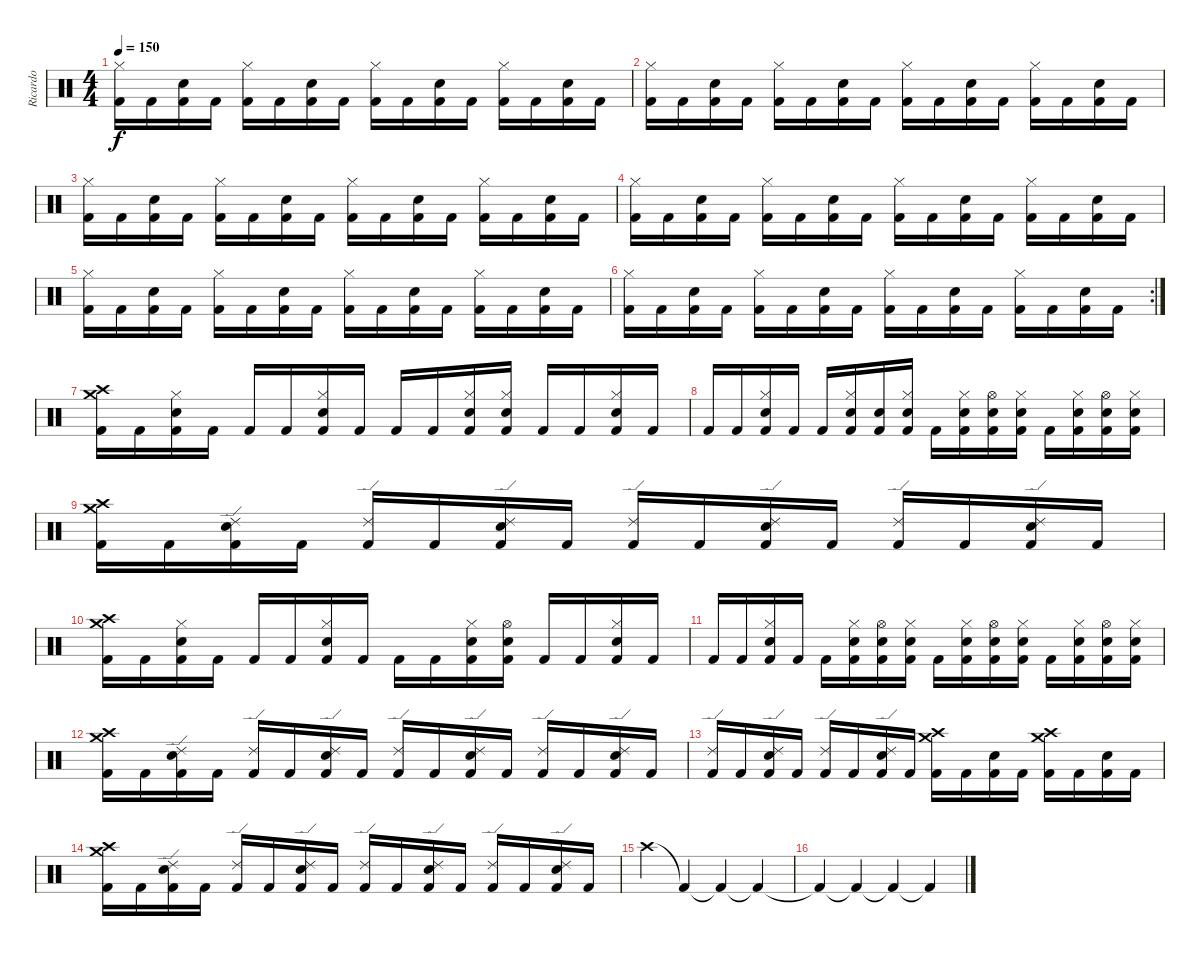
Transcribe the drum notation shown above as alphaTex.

\track ("Ricardo" "Ricardo") {instrument percussion}
\staff {score}
\articulation defaults
\ts (4 4)
\tempo 150
\clef neutral
\ks c
("Kick (hit) 2" "Hi-Hat (closed)").16{dy f} "Kick (hit) 2".16 ("Kick (hit) 2" "Snare (hit) 2").16 "Kick (hit) 2".16 ("Kick (hit) 2" "Hi-Hat (closed)").16 "Kick (hit) 2".16 ("Kick (hit) 2" "Snare (hit) 2").16 "Kick (hit) 2".16 ("Kick (hit) 2" "Hi-Hat (closed)").16 "Kick (hit) 2".16 ("Kick (hit) 2" "Snare (hit) 2").16 "Kick (hit) 2".16 ("Kick (hit) 2" "Hi-Hat (closed)").16 "Kick (hit) 2".16 ("Kick (hit) 2" "Snare (hit) 2").16 "Kick (hit) 2".16 |
("Kick (hit) 2" "Hi-Hat (closed)").16 "Kick (hit) 2".16 ("Kick (hit) 2" "Snare (hit) 2").16 "Kick (hit) 2".16 ("Kick (hit) 2" "Hi-Hat (closed)").16 "Kick (hit) 2".16 ("Kick (hit) 2" "Snare (hit) 2").16 "Kick (hit) 2".16 ("Kick (hit) 2" "Hi-Hat (closed)").16 "Kick (hit) 2".16 ("Kick (hit) 2" "Snare (hit) 2").16 "Kick (hit) 2".16 ("Kick (hit) 2" "Hi-Hat (closed)").16 "Kick (hit) 2".16 ("Kick (hit) 2" "Snare (hit) 2").16 "Kick (hit) 2".16 |
("Kick (hit) 2" "Hi-Hat (closed)").16 "Kick (hit) 2".16 ("Kick (hit) 2" "Snare (hit) 2").16 "Kick (hit) 2".16 ("Kick (hit) 2" "Hi-Hat (closed)").16 "Kick (hit) 2".16 ("Kick (hit) 2" "Snare (hit) 2").16 "Kick (hit) 2".16 ("Kick (hit) 2" "Hi-Hat (closed)").16 "Kick (hit) 2".16 ("Kick (hit) 2" "Snare (hit) 2").16 "Kick (hit) 2".16 ("Kick (hit) 2" "Hi-Hat (closed)").16 "Kick (hit) 2".16 ("Kick (hit) 2" "Snare (hit) 2").16 "Kick (hit) 2".16 |
("Kick (hit) 2" "Hi-Hat (closed)").16 "Kick (hit) 2".16 ("Kick (hit) 2" "Snare (hit) 2").16 "Kick (hit) 2".16 ("Kick (hit) 2" "Hi-Hat (closed)").16 "Kick (hit) 2".16 ("Kick (hit) 2" "Snare (hit) 2").16 "Kick (hit) 2".16 ("Kick (hit) 2" "Hi-Hat (closed)").16 "Kick (hit) 2".16 ("Kick (hit) 2" "Snare (hit) 2").16 "Kick (hit) 2".16 ("Kick (hit) 2" "Hi-Hat (closed)").16 "Kick (hit) 2".16 ("Kick (hit) 2" "Snare (hit) 2").16 "Kick (hit) 2".16 |
("Kick (hit) 2" "Hi-Hat (closed)").16 "Kick (hit) 2".16 ("Kick (hit) 2" "Snare (hit) 2").16 "Kick (hit) 2".16 ("Kick (hit) 2" "Hi-Hat (closed)").16 "Kick (hit) 2".16 ("Kick (hit) 2" "Snare (hit) 2").16 "Kick (hit) 2".16 ("Kick (hit) 2" "Hi-Hat (closed)").16 "Kick (hit) 2".16 ("Kick (hit) 2" "Snare (hit) 2").16 "Kick (hit) 2".16 ("Kick (hit) 2" "Hi-Hat (closed)").16 "Kick (hit) 2".16 ("Kick (hit) 2" "Snare (hit) 2").16 "Kick (hit) 2".16 |
\rc 2
("Kick (hit) 2" "Hi-Hat (closed)").16 "Kick (hit) 2".16 ("Kick (hit) 2" "Snare (hit) 2").16 "Kick (hit) 2".16 ("Kick (hit) 2" "Hi-Hat (closed)").16 "Kick (hit) 2".16 ("Kick (hit) 2" "Snare (hit) 2").16 "Kick (hit) 2".16 ("Kick (hit) 2" "Hi-Hat (closed)").16 "Kick (hit) 2".16 ("Kick (hit) 2" "Snare (hit) 2").16 "Kick (hit) 2".16 ("Kick (hit) 2" "Hi-Hat (closed)").16 "Kick (hit) 2".16 ("Kick (hit) 2" "Snare (hit) 2").16 "Kick (hit) 2".16 |
("Crash medium (hit)" "Crash high (hit)" "Kick (hit) 2").16 "Kick (hit) 2".16 ("Hi-Hat (closed)" "Snare (hit) 2" "Kick (hit) 2").16 "Kick (hit) 2".16 "Kick (hit) 2".16 "Kick (hit) 2".16 ("Hi-Hat (closed)" "Snare (hit) 2" "Kick (hit) 2").16 "Kick (hit) 2".16 "Kick (hit) 2".16 "Kick (hit) 2".16 ("Hi-Hat (closed)" "Snare (hit) 2" "Kick (hit) 2").16 ("Hi-Hat (closed)" "Snare (hit) 2" "Kick (hit) 2").16 "Kick (hit) 2".16 "Kick (hit) 2".16 ("Hi-Hat (closed)" "Snare (hit) 2" "Kick (hit) 2").16 "Kick (hit) 2".16 |
"Kick (hit) 2".16 "Kick (hit) 2".16 ("Hi-Hat (closed)" "Snare (hit) 2" "Kick (hit) 2").16 "Kick (hit) 2".16 "Kick (hit) 2".16 ("Hi-Hat (closed)" "Snare (hit) 2" "Kick (hit) 2").16 ("Snare (hit) 2" "Kick (hit) 2").16 ("Hi-Hat (closed)" "Snare (hit) 2" "Kick (hit) 2").16 "Kick (hit) 2".16 ("Snare (hit) 2" "Hi-Hat (closed)" "Kick (hit) 2").16 ("Hi-Hat (open)" "Snare (hit) 2" "Kick (hit) 2").16 ("Hi-Hat (closed)" "Snare (hit) 2" "Kick (hit) 2").16 "Kick (hit) 2".16 ("Hi-Hat (closed)" "Snare (hit) 2" "Kick (hit) 2").16 ("Hi-Hat (open)" "Snare (hit) 2" "Kick (hit) 2").16 ("Hi-Hat (closed)" "Snare (hit) 2" "Kick (hit) 2").16 |
("Crash high (hit)" "Crash medium (hit)" "Kick (hit) 2").16 "Kick (hit) 2".16 ("Ride (edge) 2" "Snare (hit) 2" "Kick (hit) 2").16 "Kick (hit) 2".16 ("Ride (edge) 2" "Kick (hit) 2").16 "Kick (hit) 2".16 ("Ride (edge) 2" "Snare (hit) 2" "Kick (hit) 2").16 "Kick (hit) 2".16 ("Ride (edge) 2" "Kick (hit) 2").16 "Kick (hit) 2".16 ("Ride (edge) 2" "Snare (hit) 2" "Kick (hit) 2").16 "Kick (hit) 2".16 ("Ride (edge) 2" "Kick (hit) 2").16 "Kick (hit) 2".16 ("Ride (edge) 2" "Snare (hit) 2" "Kick (hit) 2").16 "Kick (hit) 2".16 |
("Crash medium (hit)" "Crash high (hit)" "Kick (hit) 2").16 "Kick (hit) 2".16 ("Hi-Hat (closed)" "Snare (hit) 2" "Kick (hit) 2").16 "Kick (hit) 2".16 "Kick (hit) 2".16 "Kick (hit) 2".16 ("Hi-Hat (closed)" "Snare (hit) 2" "Kick (hit) 2").16 "Kick (hit) 2".16 "Kick (hit) 2".16 "Kick (hit) 2".16 ("Hi-Hat (closed)" "Snare (hit) 2" "Kick (hit) 2").16 ("Hi-Hat (open)" "Snare (hit) 2" "Kick (hit) 2").16 "Kick (hit) 2".16 "Kick (hit) 2".16 ("Hi-Hat (closed)" "Snare (hit) 2" "Kick (hit) 2").16 "Kick (hit) 2".16 |
"Kick (hit) 2".16 "Kick (hit) 2".16 ("Hi-Hat (closed)" "Snare (hit) 2" "Kick (hit) 2").16 "Kick (hit) 2".16 "Kick (hit) 2".16 ("Hi-Hat (closed)" "Snare (hit) 2" "Kick (hit) 2").16 ("Hi-Hat (open)" "Snare (hit) 2" "Kick (hit) 2").16 ("Hi-Hat (closed)" "Snare (hit) 2" "Kick (hit) 2").16 "Kick (hit) 2".16 ("Snare (hit) 2" "Hi-Hat (closed)" "Kick (hit) 2").16 ("Hi-Hat (open)" "Snare (hit) 2" "Kick (hit) 2").16 ("Hi-Hat (closed)" "Snare (hit) 2" "Kick (hit) 2").16 "Kick (hit) 2".16 ("Hi-Hat (closed)" "Snare (hit) 2" "Kick (hit) 2").16 ("Hi-Hat (open)" "Snare (hit) 2" "Kick (hit) 2").16 ("Hi-Hat (closed)" "Snare (hit) 2" "Kick (hit) 2").16 |
("Crash high (hit)" "Crash medium (hit)" "Kick (hit) 2").16 "Kick (hit) 2".16 ("Ride (edge) 2" "Snare (hit) 2" "Kick (hit) 2").16 "Kick (hit) 2".16 ("Ride (edge) 2" "Kick (hit) 2").16 "Kick (hit) 2".16 ("Ride (edge) 2" "Snare (hit) 2" "Kick (hit) 2").16 "Kick (hit) 2".16 ("Ride (edge) 2" "Kick (hit) 2").16 "Kick (hit) 2".16 ("Ride (edge) 2" "Snare (hit) 2" "Kick (hit) 2").16 "Kick (hit) 2".16 ("Ride (edge) 2" "Kick (hit) 2").16 "Kick (hit) 2".16 ("Ride (edge) 2" "Snare (hit) 2" "Kick (hit) 2").16 "Kick (hit) 2".16 |
("Ride (edge) 2" "Kick (hit) 2").16 "Kick (hit) 2".16 ("Ride (edge) 2" "Snare (hit) 2" "Kick (hit) 2").16 "Kick (hit) 2".16 ("Ride (edge) 2" "Kick (hit) 2").16 "Kick (hit) 2".16 ("Ride (edge) 2" "Snare (hit) 2" "Kick (hit) 2").16 "Kick (hit) 2".16 ("Crash high (hit)" "Crash medium (hit)" "Kick (hit) 2").16 "Kick (hit) 2".16 ("Snare (hit) 2" "Kick (hit) 2").16 "Kick (hit) 2".16 ("Crash high (hit)" "Crash medium (hit)" "Kick (hit) 2").16 "Kick (hit) 2".16 ("Snare (hit) 2" "Kick (hit) 2").16 "Kick (hit) 2".16 |
("Crash medium (hit)" "Crash high (hit)" "Kick (hit) 2").16 "Kick (hit) 2".16 ("Ride (edge) 2" "Snare (hit) 2" "Kick (hit) 2").16 "Kick (hit) 2".16 ("Ride (edge) 2" "Kick (hit) 2").16 "Kick (hit) 2".16 ("Ride (edge) 2" "Snare (hit) 2" "Kick (hit) 2").16 "Kick (hit) 2".16 ("Ride (edge) 2" "Kick (hit) 2").16 "Kick (hit) 2".16 ("Ride (edge) 2" "Snare (hit) 2" "Kick (hit) 2").16 "Kick (hit) 2".16 ("Ride (edge) 2" "Kick (hit) 2").16 "Kick (hit) 2".16 ("Ride (edge) 2" "Snare (hit) 2" "Kick (hit) 2").16 "Kick (hit) 2".16 |
"Crash high (hit)".4 "Kick (hit) 2"{t}.4 "Kick (hit) 2"{t}.4 "Kick (hit) 2"{t}.4 |
"Kick (hit) 2"{t}.4 "Kick (hit) 2"{t}.4 "Kick (hit) 2"{t}.4 "Kick (hit) 2"{t}.4
